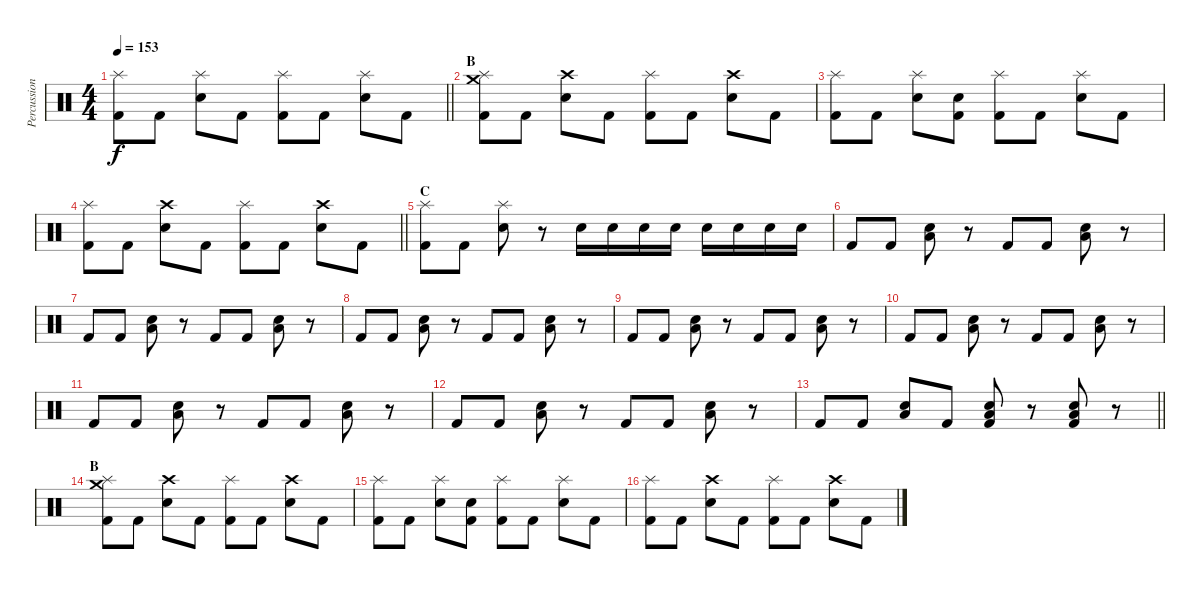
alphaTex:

\track ("Percussion" "Percussion") {instrument percussion}
\staff {score}
\articulation defaults
\ts (4 4)
\tempo 153
\clef neutral
\barLineRight lightlight
\ks c
("Splash (hit)" "Kick (hit) 2").8{dy f} "Kick (hit) 2".8 ("Splash (hit)" "Electric Snare (hit)").8 "Kick (hit) 2".8 ("Splash (hit)" "Kick (hit) 2").8 "Kick (hit) 2".8 ("Splash (hit)" "Electric Snare (hit)").8 "Kick (hit) 2".8 |
\section ("" "B")
("Splash (hit)" "Crash medium (hit)" "Kick (hit) 2").8 "Kick (hit) 2".8 ("Crash high (hit)" "Electric Snare (hit)").8 "Kick (hit) 2".8 ("Splash (hit)" "Kick (hit) 2").8 "Kick (hit) 2".8 ("Crash high (hit)" "Electric Snare (hit)").8 "Kick (hit) 2".8 |
("Splash (hit)" "Kick (hit) 2").8 "Kick (hit) 2".8 ("Splash (hit)" "Electric Snare (hit)").8 ("Electric Snare (hit)" "Kick (hit) 2").8 ("Splash (hit)" "Kick (hit) 2").8 "Kick (hit) 2".8 ("Splash (hit)" "Electric Snare (hit)").8 "Kick (hit) 2".8 |
\barLineRight lightlight
("Splash (hit)" "Kick (hit) 2").8 "Kick (hit) 2".8 ("Crash high (hit)" "Electric Snare (hit)").8 "Kick (hit) 2".8 ("Splash (hit)" "Kick (hit) 2").8 "Kick (hit) 2".8 ("Crash high (hit)" "Electric Snare (hit)").8 "Kick (hit) 2".8 |
\section ("" "C")
("Splash (hit)" "Kick (hit) 2").8 "Kick (hit) 2".8 ("Splash (hit)" "Electric Snare (hit)").8 r.8 "Electric Snare (hit)".16 "Electric Snare (hit)".16 "Electric Snare (hit)".16 "Electric Snare (hit)".16 "Electric Snare (hit)".16 "Electric Snare (hit)".16 "Electric Snare (hit)".16 "Electric Snare (hit)".16 |
"Kick (hit) 2".8 "Kick (hit) 2".8 ("Low Floor Tom (hit)" "Electric Snare (hit)").8 r.8 "Kick (hit) 2".8 "Kick (hit) 2".8 ("Low Floor Tom (hit)" "Electric Snare (hit)").8 r.8 |
"Kick (hit) 2".8 "Kick (hit) 2".8 ("Low Floor Tom (hit)" "Electric Snare (hit)").8 r.8 "Kick (hit) 2".8 "Kick (hit) 2".8 ("Low Floor Tom (hit)" "Electric Snare (hit)").8 r.8 |
"Kick (hit) 2".8 "Kick (hit) 2".8 ("Low Floor Tom (hit)" "Electric Snare (hit)").8 r.8 "Kick (hit) 2".8 "Kick (hit) 2".8 ("Low Floor Tom (hit)" "Electric Snare (hit)").8 r.8 |
"Kick (hit) 2".8 "Kick (hit) 2".8 ("Low Floor Tom (hit)" "Electric Snare (hit)").8 r.8 "Kick (hit) 2".8 "Kick (hit) 2".8 ("Low Floor Tom (hit)" "Electric Snare (hit)").8 r.8 |
"Kick (hit) 2".8 "Kick (hit) 2".8 ("Low Floor Tom (hit)" "Electric Snare (hit)").8 r.8 "Kick (hit) 2".8 "Kick (hit) 2".8 ("Low Floor Tom (hit)" "Electric Snare (hit)").8 r.8 |
"Kick (hit) 2".8 "Kick (hit) 2".8 ("Low Floor Tom (hit)" "Electric Snare (hit)").8 r.8 "Kick (hit) 2".8 "Kick (hit) 2".8 ("Low Floor Tom (hit)" "Electric Snare (hit)").8 r.8 |
"Kick (hit) 2".8 "Kick (hit) 2".8 ("Low Floor Tom (hit)" "Electric Snare (hit)").8 r.8 "Kick (hit) 2".8 "Kick (hit) 2".8 ("Low Floor Tom (hit)" "Electric Snare (hit)").8 r.8 |
\barLineRight lightlight "Kick (hit) 2".8 "Kick (hit) 2".8
("Low Floor Tom (hit)" "Electric Snare (hit)").8 "Kick (hit) 2".8 ("Low Floor Tom (hit)" "Electric Snare (hit)" "Kick (hit) 2").8 r.8 ("Low Floor Tom (hit)" "Electric Snare (hit)" "Kick (hit) 2").8 r.8 |
\section ("" "B")
("Splash (hit)" "Crash medium (hit)" "Kick (hit) 2").8 "Kick (hit) 2".8 ("Crash high (hit)" "Electric Snare (hit)").8 "Kick (hit) 2".8 ("Splash (hit)" "Kick (hit) 2").8 "Kick (hit) 2".8 ("Crash high (hit)" "Electric Snare (hit)").8 "Kick (hit) 2".8 |
("Splash (hit)" "Kick (hit) 2").8 "Kick (hit) 2".8 ("Splash (hit)" "Electric Snare (hit)").8 ("Electric Snare (hit)" "Kick (hit) 2").8 ("Splash (hit)" "Kick (hit) 2").8 "Kick (hit) 2".8 ("Splash (hit)" "Electric Snare (hit)").8 "Kick (hit) 2".8 |
("Splash (hit)" "Kick (hit) 2").8 "Kick (hit) 2".8 ("Crash high (hit)" "Electric Snare (hit)").8 "Kick (hit) 2".8 ("Splash (hit)" "Kick (hit) 2").8 "Kick (hit) 2".8 ("Crash high (hit)" "Electric Snare (hit)").8 "Kick (hit) 2".8
